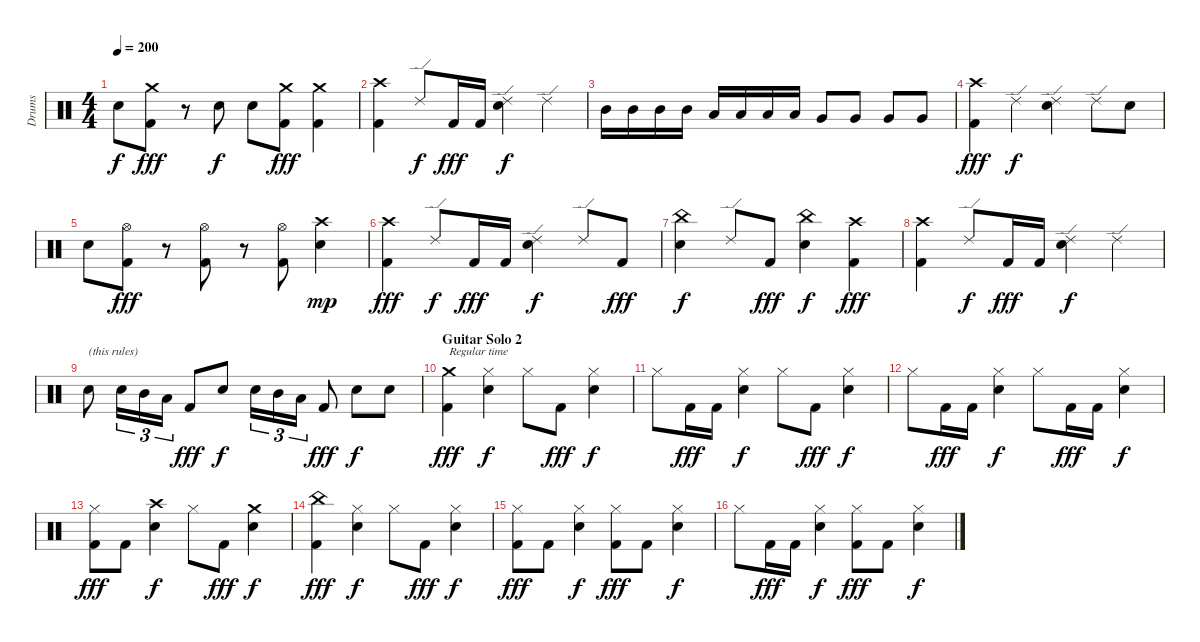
\track ("Drums" "Drums") {instrument percussion}
\staff {score}
\articulation defaults
\ts (4 4)
\tempo 200
\clef neutral
\ks c "Snare (hit) 2".8{dy f}
("Crash medium (hit)" "Kick (hit) 2").8{dy fff} r.8 "Snare (hit) 2".8{dy f} "Snare (hit) 2".8 ("Crash medium (hit)" "Kick (hit) 2").8{dy fff} ("Crash medium (hit)" "Kick (hit) 2").4 |
("Crash high (hit)" "Kick (hit) 2").4 "Ride (edge) 2".8{dy f} "Kick (hit) 2".16{dy fff} "Kick (hit) 2".16 ("Ride (edge) 2" "Snare (hit) 2").4{dy f} "Ride (edge) 2".4 |
"Mid Tom (hit)".16 "Mid Tom (hit)".16 "Mid Tom (hit)".16 "Mid Tom (hit)".16 "Low Tom (hit)".16 "Low Tom (hit)".16 "Low Tom (hit)".16 "Low Tom (hit)".16 "Very Low Tom (hit)".8 "Very Low Tom (hit)".8 "Very Low Tom (hit)".8 "Very Low Tom (hit)".8 |
("Crash high (hit)" "Kick (hit) 2").4{dy fff} "Ride (edge) 2".4{dy f} ("Ride (edge) 2" "Snare (hit) 2").4 "Ride (edge) 2".8 "Snare (hit) 2".8 |
"Snare (hit) 2".8 ("Hi-Hat (open)" "Kick (hit) 2").8{dy fff} r.8 ("Hi-Hat (open)" "Kick (hit) 2").8 r.8 ("Hi-Hat (open)" "Kick (hit) 2").8 ("Crash high (hit)" "Snare (hit) 2").4{dy mp} |
("Crash high (hit)" "Kick (hit) 2").4{dy fff} "Ride (edge) 2".8{dy f} "Kick (hit) 2".16{dy fff} "Kick (hit) 2".16 ("Ride (edge) 2" "Snare (hit) 2").4{dy f} "Ride (edge) 2".8 "Kick (hit) 2".8{dy fff} |
("China (hit)" "Snare (hit) 2").4{dy f} "Ride (edge) 2".8 "Kick (hit) 2".8{dy fff} ("China (hit)" "Snare (hit) 2").4{dy f} ("Crash high (hit)" "Kick (hit) 2").4{dy fff} |
("Crash high (hit)" "Kick (hit) 2").4 "Ride (edge) 2".8{dy f} "Kick (hit) 2".16{dy fff} "Kick (hit) 2".16 ("Ride (edge) 2" "Snare (hit) 2").4{dy f} "Ride (edge) 2".4 |
"Snare (hit) 2".8{txt "(this rules)"} "Snare (hit) 2".16{tu (3 2)} "Mid Tom (hit)".16{tu (3 2)} "Low Floor Tom (hit)".16{tu (3 2)} "Kick (hit) 2".8{dy fff} "Snare (hit) 2".8{dy f} "Snare (hit) 2".16{tu (3 2)} "Mid Tom (hit)".16{tu (3 2)} "Low Floor Tom (hit)".16{tu (3 2)} "Kick (hit) 2".8{dy fff} "Snare (hit) 2".8{dy f} "Snare (hit) 2".8 |
\section ("" "Guitar Solo 2")
("Crash medium (hit)" "Kick (hit) 2").4{txt "Regular time" dy fff} ("Hi-Hat (closed)" "Snare (hit) 2").4{dy f} "Hi-Hat (closed)".8 "Kick (hit) 2".8{dy fff} ("Hi-Hat (closed)" "Snare (hit) 2").4{dy f} |
"Hi-Hat (closed)".8 "Kick (hit) 2".16{dy fff} "Kick (hit) 2".16 ("Hi-Hat (closed)" "Snare (hit) 2").4{dy f} "Hi-Hat (closed)".8 "Kick (hit) 2".8{dy fff} ("Hi-Hat (closed)" "Snare (hit) 2").4{dy f} |
"Hi-Hat (closed)".8 "Kick (hit) 2".16{dy fff} "Kick (hit) 2".16 ("Hi-Hat (closed)" "Snare (hit) 2").4{dy f} "Hi-Hat (closed)".8 "Kick (hit) 2".16{dy fff} "Kick (hit) 2".16 ("Hi-Hat (closed)" "Snare (hit) 2").4{dy f} |
("Hi-Hat (closed)" "Kick (hit) 2").8{dy fff} "Kick (hit) 2".8 ("Crash high (hit)" "Snare (hit) 2").4{dy f} "Hi-Hat (closed)".8 "Kick (hit) 2".8{dy fff} ("Crash medium (hit)" "Snare (hit) 2").4{dy f} |
("China (hit)" "Kick (hit) 2").4{dy fff} ("Hi-Hat (closed)" "Snare (hit) 2").4{dy f} "Hi-Hat (closed)".8 "Kick (hit) 2".8{dy fff} ("Hi-Hat (closed)" "Snare (hit) 2").4{dy f} |
("Hi-Hat (closed)" "Kick (hit) 2").8{dy fff} "Kick (hit) 2".8 ("Hi-Hat (closed)" "Snare (hit) 2").4{dy f} ("Hi-Hat (closed)" "Kick (hit) 2").8{dy fff} "Kick (hit) 2".8 ("Hi-Hat (closed)" "Snare (hit) 2").4{dy f} |
"Hi-Hat (closed)".8 "Kick (hit) 2".16{dy fff} "Kick (hit) 2".16 ("Hi-Hat (closed)" "Snare (hit) 2").4{dy f} ("Hi-Hat (closed)" "Kick (hit) 2").8{dy fff} "Kick (hit) 2".8 ("Hi-Hat (closed)" "Snare (hit) 2").4{dy f}
